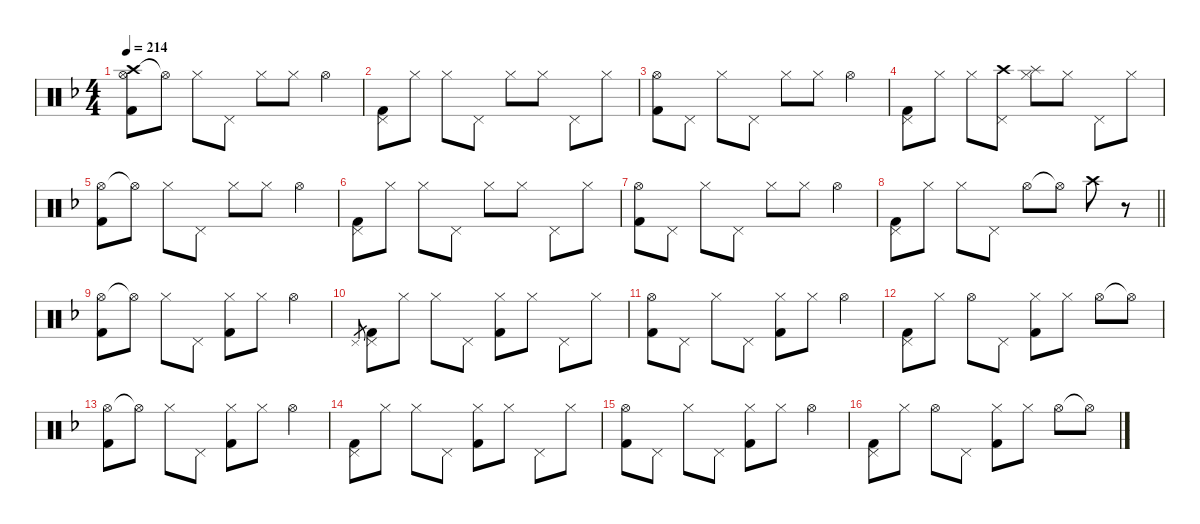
\hideDynamics
\bracketExtendMode nobrackets
\singleTrackTrackNamePolicy hidden
\multiTrackTrackNamePolicy hidden
\firstSystemTrackNameMode fullname
\firstSystemTrackNameOrientation horizontal
\otherSystemsTrackNameOrientation horizontal
\track ("Drumkit" "Drums") {defaultSystemsLayout 4 instrument percussion}
\staff {score}
\articulation defaults
\ts (4 4)
\tempo 214
\clef neutral
\ks dminor
("Crash high (hit)"{acc forcenatural} "Hi-Hat (open)"{acc forcenatural} "Kick (hit) 2"{acc forcenatural}).8{dy mp beam Down} "Hi-Hat (open)"{t acc forcenatural}.8{dy f beam Down} "Hi-Hat (closed)"{acc forcenatural}.8{dy mp beam Down} "Pedal Hi-Hat (hit)"{acc forcenatural}.8{beam Down} "Hi-Hat (closed)"{acc forcenatural}.8{beam Down} "Hi-Hat (closed)"{acc forcenatural}.8{beam Down} "Hi-Hat (open)"{acc forcenatural}.4{dy mf beam Down} |
("Pedal Hi-Hat (hit)"{acc forcenatural} "Kick (hit) 2"{acc forcenatural}).8{beam Down} "Hi-Hat (closed)"{acc forcenatural}.8{dy mp beam Down} "Hi-Hat (closed)"{acc forcenatural}.8{beam Down} "Pedal Hi-Hat (hit)"{acc forcenatural}.8{dy mf beam Down} "Hi-Hat (closed)"{acc forcenatural}.8{dy mp beam Down} "Hi-Hat (closed)"{acc forcenatural}.8{beam Down} "Pedal Hi-Hat (hit)"{acc forcenatural}.8{dy mf beam Down} "Hi-Hat (closed)"{acc forcenatural}.8{dy mp beam Down} |
("Hi-Hat (open)"{acc forcenatural} "Kick (hit) 2"{acc forcenatural}).8{dy mf beam Down} "Pedal Hi-Hat (hit)"{acc forcenatural}.8{beam Down} "Hi-Hat (closed)"{acc forcenatural}.8{dy mp beam Down} "Pedal Hi-Hat (hit)"{acc forcenatural}.8{beam Down} "Hi-Hat (closed)"{acc forcenatural}.8{beam Down} "Hi-Hat (closed)"{acc forcenatural}.8{beam Down} "Hi-Hat (open)"{acc forcenatural}.4{dy mf beam Down} |
("Pedal Hi-Hat (hit)"{acc forcenatural} "Kick (hit) 2"{acc forcenatural}).8{beam Down} "Hi-Hat (closed)"{acc forcenatural}.8{dy mp beam Down} "Hi-Hat (closed)"{acc forcenatural}.8{beam Down} ("Crash high (hit)"{acc forcenatural} "Pedal Hi-Hat (hit)"{acc forcenatural}).8{beam Down} ("Splash (hit)"{acc forcenatural} "Hi-Hat (closed)"{acc forcenatural}).8{beam Down} "Hi-Hat (closed)"{acc forcenatural}.8{beam Down} "Pedal Hi-Hat (hit)"{acc forcenatural}.8{dy mf beam Down} "Hi-Hat (closed)"{acc forcenatural}.8{dy mp beam Down} |
("Hi-Hat (open)"{acc forcenatural} "Kick (hit) 2"{acc forcenatural}).8{dy mf beam Down} "Hi-Hat (open)"{t acc forcenatural}.8{dy f beam Down} "Hi-Hat (closed)"{acc forcenatural}.8{dy mp beam Down} "Pedal Hi-Hat (hit)"{acc forcenatural}.8{beam Down} "Hi-Hat (closed)"{acc forcenatural}.8{beam Down} "Hi-Hat (closed)"{acc forcenatural}.8{beam Down} "Hi-Hat (open)"{acc forcenatural}.4{dy mf beam Down} |
("Pedal Hi-Hat (hit)"{acc forcenatural} "Kick (hit) 2"{acc forcenatural}).8{beam Down} "Hi-Hat (closed)"{acc forcenatural}.8{dy mp beam Down} "Hi-Hat (closed)"{acc forcenatural}.8{beam Down} "Pedal Hi-Hat (hit)"{acc forcenatural}.8{dy mf beam Down} "Hi-Hat (closed)"{acc forcenatural}.8{dy mp beam Down} "Hi-Hat (closed)"{acc forcenatural}.8{beam Down} "Pedal Hi-Hat (hit)"{acc forcenatural}.8{dy mf beam Down} "Hi-Hat (closed)"{acc forcenatural}.8{dy mp beam Down} |
("Hi-Hat (open)"{acc forcenatural} "Kick (hit) 2"{acc forcenatural}).8{dy mf beam Down} "Pedal Hi-Hat (hit)"{acc forcenatural}.8{beam Down} "Hi-Hat (closed)"{acc forcenatural}.8{dy mp beam Down} "Pedal Hi-Hat (hit)"{acc forcenatural}.8{beam Down} "Hi-Hat (closed)"{acc forcenatural}.8{beam Down} "Hi-Hat (closed)"{acc forcenatural}.8{beam Down} "Hi-Hat (open)"{acc forcenatural}.4{dy mf beam Down} |
\barLineRight lightlight
("Pedal Hi-Hat (hit)"{acc forcenatural} "Kick (hit) 2"{acc forcenatural}).8{beam Down} "Hi-Hat (closed)"{acc forcenatural}.8{dy mp beam Down} "Hi-Hat (closed)"{acc forcenatural}.8{beam Down} "Pedal Hi-Hat (hit)"{acc forcenatural}.8{dy mf beam Down} "Hi-Hat (open)"{acc forcenatural}.8{beam Down} "Hi-Hat (open)"{t acc forcenatural}.8{dy f beam Down} "Crash high (hit)"{acc forcenatural}.8{dy mf beam Down} r.8{beam Down} |
("Hi-Hat (open)"{acc forcenatural} "Kick (hit) 2"{acc forcenatural}).8{beam Down} "Hi-Hat (open)"{t acc forcenatural}.8{dy f beam Down} "Hi-Hat (closed)"{acc forcenatural}.8{dy mp beam Down} "Pedal Hi-Hat (hit)"{acc forcenatural}.8{beam Down} ("Hi-Hat (closed)"{acc forcenatural} "Kick (hit) 2"{acc forcenatural}).8{beam Down} "Hi-Hat (closed)"{acc forcenatural}.8{beam Down} "Hi-Hat (open)"{acc forcenatural}.4{dy mf beam Down} |
"Pedal Hi-Hat (hit)"{acc forcenatural}.8{gr dy p beam Up} ("Pedal Hi-Hat (hit)"{acc forcenatural} "Kick (hit) 2"{acc forcenatural}).8{dy mf beam Down} "Hi-Hat (closed)"{acc forcenatural}.8{dy mp beam Down} "Hi-Hat (closed)"{acc forcenatural}.8{beam Down} "Pedal Hi-Hat (hit)"{acc forcenatural}.8{dy mf beam Down} ("Hi-Hat (closed)"{acc forcenatural} "Kick (hit) 2"{acc forcenatural}).8{dy mp beam Down} "Hi-Hat (closed)"{acc forcenatural}.8{beam Down} "Pedal Hi-Hat (hit)"{acc forcenatural}.8{dy mf beam Down} "Hi-Hat (closed)"{acc forcenatural}.8{dy mp beam Down} |
("Hi-Hat (open)"{acc forcenatural} "Kick (hit) 2"{acc forcenatural}).8{dy mf beam Down} "Pedal Hi-Hat (hit)"{acc forcenatural}.8{beam Down} "Hi-Hat (closed)"{acc forcenatural}.8{dy mp beam Down} "Pedal Hi-Hat (hit)"{acc forcenatural}.8{beam Down} ("Hi-Hat (closed)"{acc forcenatural} "Kick (hit) 2"{acc forcenatural}).8{beam Down} "Hi-Hat (closed)"{acc forcenatural}.8{beam Down} "Hi-Hat (open)"{acc forcenatural}.4{dy mf beam Down} |
("Pedal Hi-Hat (hit)"{acc forcenatural} "Kick (hit) 2"{acc forcenatural}).8{beam Down} "Hi-Hat (closed)"{acc forcenatural}.8{dy mp beam Down} "Hi-Hat (open)"{acc forcenatural}.8{dy mf beam Down} "Pedal Hi-Hat (hit)"{acc forcenatural}.8{dy f beam Down} ("Hi-Hat (closed)"{acc forcenatural} "Kick (hit) 2"{acc forcenatural}).8{dy mp beam Down} "Hi-Hat (closed)"{acc forcenatural}.8{beam Down} "Hi-Hat (open)"{acc forcenatural}.8{dy mf beam Down} "Hi-Hat (open)"{t acc forcenatural}.8{dy f beam Down} |
("Hi-Hat (open)"{acc forcenatural} "Kick (hit) 2"{acc forcenatural}).8{dy mf beam Down} "Hi-Hat (open)"{t acc forcenatural}.8{dy f beam Down} "Hi-Hat (closed)"{acc forcenatural}.8{dy mp beam Down} "Pedal Hi-Hat (hit)"{acc forcenatural}.8{beam Down} ("Hi-Hat (closed)"{acc forcenatural} "Kick (hit) 2"{acc forcenatural}).8{beam Down} "Hi-Hat (closed)"{acc forcenatural}.8{beam Down} "Hi-Hat (open)"{acc forcenatural}.4{dy mf beam Down} |
("Pedal Hi-Hat (hit)"{acc forcenatural} "Kick (hit) 2"{acc forcenatural}).8{beam Down} "Hi-Hat (closed)"{acc forcenatural}.8{dy mp beam Down} "Hi-Hat (closed)"{acc forcenatural}.8{beam Down} "Pedal Hi-Hat (hit)"{acc forcenatural}.8{dy mf beam Down} ("Hi-Hat (closed)"{acc forcenatural} "Kick (hit) 2"{acc forcenatural}).8{dy mp beam Down} "Hi-Hat (closed)"{acc forcenatural}.8{beam Down} "Pedal Hi-Hat (hit)"{acc forcenatural}.8{dy mf beam Down} "Hi-Hat (closed)"{acc forcenatural}.8{dy mp beam Down} |
("Hi-Hat (open)"{acc forcenatural} "Kick (hit) 2"{acc forcenatural}).8{dy mf beam Down} "Pedal Hi-Hat (hit)"{acc forcenatural}.8{beam Down} "Hi-Hat (closed)"{acc forcenatural}.8{dy mp beam Down} "Pedal Hi-Hat (hit)"{acc forcenatural}.8{beam Down} ("Hi-Hat (closed)"{acc forcenatural} "Kick (hit) 2"{acc forcenatural}).8{beam Down} "Hi-Hat (closed)"{acc forcenatural}.8{beam Down} "Hi-Hat (open)"{acc forcenatural}.4{dy mf beam Down} |
("Pedal Hi-Hat (hit)"{acc forcenatural} "Kick (hit) 2"{acc forcenatural}).8{beam Down} "Hi-Hat (closed)"{acc forcenatural}.8{dy mp beam Down} "Hi-Hat (open)"{acc forcenatural}.8{dy mf beam Down} "Pedal Hi-Hat (hit)"{acc forcenatural}.8{dy f beam Down} ("Hi-Hat (closed)"{acc forcenatural} "Kick (hit) 2"{acc forcenatural}).8{dy mp beam Down} "Hi-Hat (closed)"{acc forcenatural}.8{beam Down} "Hi-Hat (open)"{acc forcenatural}.8{dy mf beam Down} "Hi-Hat (open)"{t acc forcenatural}.8{dy f beam Down}
